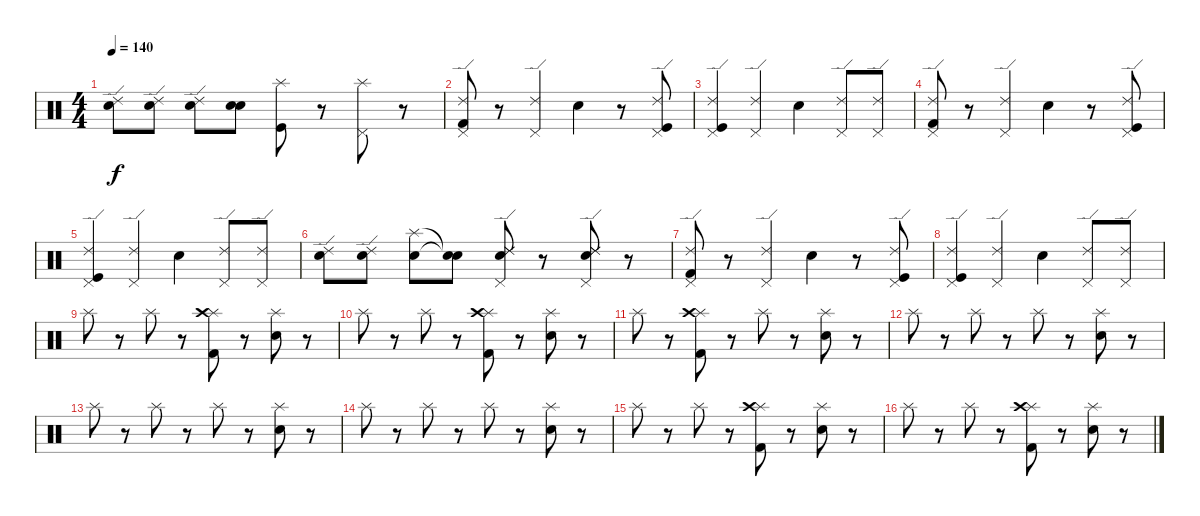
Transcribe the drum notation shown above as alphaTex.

\track "" {instrument percussion}
\staff {score}
\articulation defaults
\ts (4 4)
\tempo 140
\clef neutral
\ks c
("Ride (edge) 2" "Electric Snare (hit)").8{dy f} ("Ride (edge) 2" "Electric Snare (hit)").8 ("Ride (edge) 2" "Electric Snare (hit)").8 ("Electric Snare (hit)" "Electric Snare (hit)").8 ("Splash (hit)" "Kick (hit)").8 r.8 ("Splash (hit)" "Pedal Hi-Hat (hit)").8 r.8 |
("Ride (edge) 2" "Kick (hit) 2" "Pedal Hi-Hat (hit)").8 r.8 ("Ride (edge) 2" "Pedal Hi-Hat (hit)").4 "Electric Snare (hit)".4 r.8 ("Ride (edge) 2" "Kick (hit)" "Pedal Hi-Hat (hit)").8 |
("Ride (edge) 2" "Kick (hit)" "Pedal Hi-Hat (hit)").4 ("Ride (edge) 2" "Pedal Hi-Hat (hit)").4 "Electric Snare (hit)".4 ("Ride (edge) 2" "Pedal Hi-Hat (hit)").8 ("Ride (edge) 2" "Pedal Hi-Hat (hit)").8 |
("Ride (edge) 2" "Kick (hit) 2" "Pedal Hi-Hat (hit)").8 r.8 ("Ride (edge) 2" "Pedal Hi-Hat (hit)").4 "Electric Snare (hit)".4 r.8 ("Ride (edge) 2" "Kick (hit)" "Pedal Hi-Hat (hit)").8 |
("Ride (edge) 2" "Kick (hit)" "Pedal Hi-Hat (hit)").4 ("Ride (edge) 2" "Pedal Hi-Hat (hit)").4 "Electric Snare (hit)".4 ("Ride (edge) 2" "Pedal Hi-Hat (hit)").8 ("Ride (edge) 2" "Pedal Hi-Hat (hit)").8 |
("Ride (edge) 2" "Electric Snare (hit)").8 ("Ride (edge) 2" "Electric Snare (hit)").8 ("Splash (hit)" "Electric Snare (hit)").8 ("Electric Snare (hit)"{t} "Electric Snare (hit)"{t}).8 ("Ride (edge) 2" "Electric Snare (hit)" "Pedal Hi-Hat (hit)" "Ride (edge) 2").8 r.8 ("Ride (edge) 2" "Electric Snare (hit)" "Pedal Hi-Hat (hit)" "Ride (edge) 2").8 r.8 |
("Ride (edge) 2" "Kick (hit) 2" "Pedal Hi-Hat (hit)").8 r.8 ("Ride (edge) 2" "Pedal Hi-Hat (hit)").4 "Electric Snare (hit)".4 r.8 ("Ride (edge) 2" "Kick (hit)" "Pedal Hi-Hat (hit)").8 |
("Ride (edge) 2" "Kick (hit)" "Pedal Hi-Hat (hit)").4 ("Ride (edge) 2" "Pedal Hi-Hat (hit)").4 "Electric Snare (hit)".4 ("Ride (edge) 2" "Pedal Hi-Hat (hit)").8 ("Ride (edge) 2" "Pedal Hi-Hat (hit)").8 |
"Splash (hit)".8 r.8 "Splash (hit)".8 r.8 ("Kick (hit) 2" "Splash (hit)" "Crash high (hit)").8 r.8 ("Splash (hit)" "Electric Snare (hit)").8 r.8 |
"Splash (hit)".8 r.8 "Splash (hit)".8 r.8 ("Kick (hit) 2" "Splash (hit)" "Crash high (hit)").8 r.8 ("Splash (hit)" "Electric Snare (hit)").8 r.8 |
"Splash (hit)".8 r.8 ("Kick (hit) 2" "Splash (hit)" "Crash high (hit)").8 r.8 "Splash (hit)".8 r.8 ("Splash (hit)" "Electric Snare (hit)").8 r.8 |
"Splash (hit)".8 r.8 "Splash (hit)".8 r.8 "Splash (hit)".8 r.8 ("Splash (hit)" "Electric Snare (hit)").8 r.8 |
"Splash (hit)".8 r.8 "Splash (hit)".8 r.8 "Splash (hit)".8 r.8 ("Splash (hit)" "Electric Snare (hit)").8 r.8 |
"Splash (hit)".8 r.8 "Splash (hit)".8 r.8 "Splash (hit)".8 r.8 ("Splash (hit)" "Electric Snare (hit)").8 r.8 |
"Splash (hit)".8 r.8 "Splash (hit)".8 r.8 ("Kick (hit) 2" "Splash (hit)" "Crash high (hit)").8 r.8 ("Splash (hit)" "Electric Snare (hit)").8 r.8 |
"Splash (hit)".8 r.8 "Splash (hit)".8 r.8 ("Kick (hit) 2" "Splash (hit)" "Crash high (hit)").8 r.8 ("Splash (hit)" "Electric Snare (hit)").8 r.8
